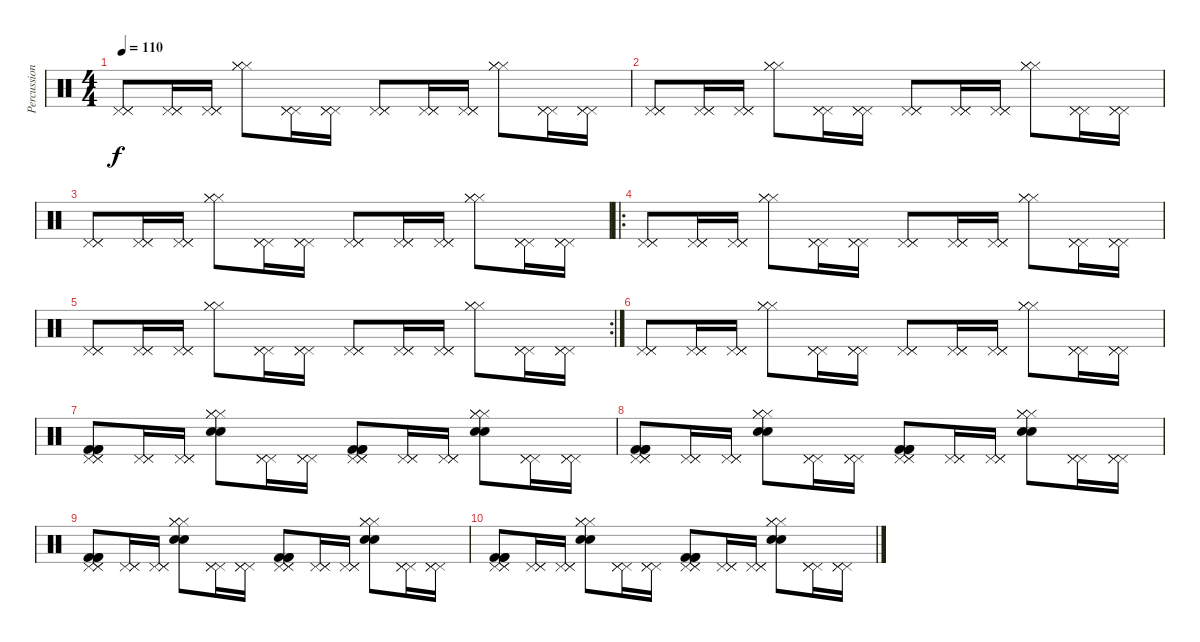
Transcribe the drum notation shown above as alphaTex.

\track ("Percussion" "Percussion") {instrument percussion}
\staff {score}
\articulation defaults
\ts (4 4)
\tempo 110
\clef neutral
\ks c
("Pedal Hi-Hat (hit)" "Pedal Hi-Hat (hit)" "Pedal Hi-Hat (hit)").8{dy f} ("Pedal Hi-Hat (hit)" "Pedal Hi-Hat (hit)" "Pedal Hi-Hat (hit)").16 ("Pedal Hi-Hat (hit)" "Pedal Hi-Hat (hit)" "Pedal Hi-Hat (hit)").16 ("Hi-Hat (closed)" "Hi-Hat (closed)" "Hi-Hat (closed)").8 ("Pedal Hi-Hat (hit)" "Pedal Hi-Hat (hit)" "Pedal Hi-Hat (hit)").16 ("Pedal Hi-Hat (hit)" "Pedal Hi-Hat (hit)" "Pedal Hi-Hat (hit)").16 ("Pedal Hi-Hat (hit)" "Pedal Hi-Hat (hit)" "Pedal Hi-Hat (hit)").8 ("Pedal Hi-Hat (hit)" "Pedal Hi-Hat (hit)" "Pedal Hi-Hat (hit)").16 ("Pedal Hi-Hat (hit)" "Pedal Hi-Hat (hit)" "Pedal Hi-Hat (hit)").16 ("Hi-Hat (closed)" "Hi-Hat (closed)" "Hi-Hat (closed)").8 ("Pedal Hi-Hat (hit)" "Pedal Hi-Hat (hit)" "Pedal Hi-Hat (hit)").16 ("Pedal Hi-Hat (hit)" "Pedal Hi-Hat (hit)" "Pedal Hi-Hat (hit)").16 |
("Pedal Hi-Hat (hit)" "Pedal Hi-Hat (hit)" "Pedal Hi-Hat (hit)").8 ("Pedal Hi-Hat (hit)" "Pedal Hi-Hat (hit)" "Pedal Hi-Hat (hit)").16 ("Pedal Hi-Hat (hit)" "Pedal Hi-Hat (hit)" "Pedal Hi-Hat (hit)").16 ("Hi-Hat (closed)" "Hi-Hat (closed)" "Hi-Hat (closed)").8 ("Pedal Hi-Hat (hit)" "Pedal Hi-Hat (hit)" "Pedal Hi-Hat (hit)").16 ("Pedal Hi-Hat (hit)" "Pedal Hi-Hat (hit)" "Pedal Hi-Hat (hit)").16 ("Pedal Hi-Hat (hit)" "Pedal Hi-Hat (hit)" "Pedal Hi-Hat (hit)").8 ("Pedal Hi-Hat (hit)" "Pedal Hi-Hat (hit)" "Pedal Hi-Hat (hit)").16 ("Pedal Hi-Hat (hit)" "Pedal Hi-Hat (hit)" "Pedal Hi-Hat (hit)").16 ("Hi-Hat (closed)" "Hi-Hat (closed)" "Hi-Hat (closed)").8 ("Pedal Hi-Hat (hit)" "Pedal Hi-Hat (hit)" "Pedal Hi-Hat (hit)").16 ("Pedal Hi-Hat (hit)" "Pedal Hi-Hat (hit)" "Pedal Hi-Hat (hit)").16 |
("Pedal Hi-Hat (hit)" "Pedal Hi-Hat (hit)" "Pedal Hi-Hat (hit)").8 ("Pedal Hi-Hat (hit)" "Pedal Hi-Hat (hit)" "Pedal Hi-Hat (hit)").16 ("Pedal Hi-Hat (hit)" "Pedal Hi-Hat (hit)" "Pedal Hi-Hat (hit)").16 ("Hi-Hat (closed)" "Hi-Hat (closed)" "Hi-Hat (closed)").8 ("Pedal Hi-Hat (hit)" "Pedal Hi-Hat (hit)" "Pedal Hi-Hat (hit)").16 ("Pedal Hi-Hat (hit)" "Pedal Hi-Hat (hit)" "Pedal Hi-Hat (hit)").16 ("Pedal Hi-Hat (hit)" "Pedal Hi-Hat (hit)" "Pedal Hi-Hat (hit)").8 ("Pedal Hi-Hat (hit)" "Pedal Hi-Hat (hit)" "Pedal Hi-Hat (hit)").16 ("Pedal Hi-Hat (hit)" "Pedal Hi-Hat (hit)" "Pedal Hi-Hat (hit)").16 ("Hi-Hat (closed)" "Hi-Hat (closed)" "Hi-Hat (closed)").8 ("Pedal Hi-Hat (hit)" "Pedal Hi-Hat (hit)" "Pedal Hi-Hat (hit)").16 ("Pedal Hi-Hat (hit)" "Pedal Hi-Hat (hit)" "Pedal Hi-Hat (hit)").16 |
\ro
("Pedal Hi-Hat (hit)" "Pedal Hi-Hat (hit)" "Pedal Hi-Hat (hit)").8 ("Pedal Hi-Hat (hit)" "Pedal Hi-Hat (hit)" "Pedal Hi-Hat (hit)").16 ("Pedal Hi-Hat (hit)" "Pedal Hi-Hat (hit)" "Pedal Hi-Hat (hit)").16 ("Hi-Hat (closed)" "Hi-Hat (closed)" "Hi-Hat (closed)").8 ("Pedal Hi-Hat (hit)" "Pedal Hi-Hat (hit)" "Pedal Hi-Hat (hit)").16 ("Pedal Hi-Hat (hit)" "Pedal Hi-Hat (hit)" "Pedal Hi-Hat (hit)").16 ("Pedal Hi-Hat (hit)" "Pedal Hi-Hat (hit)" "Pedal Hi-Hat (hit)").8 ("Pedal Hi-Hat (hit)" "Pedal Hi-Hat (hit)" "Pedal Hi-Hat (hit)").16 ("Pedal Hi-Hat (hit)" "Pedal Hi-Hat (hit)" "Pedal Hi-Hat (hit)").16 ("Hi-Hat (closed)" "Hi-Hat (closed)" "Hi-Hat (closed)").8 ("Pedal Hi-Hat (hit)" "Pedal Hi-Hat (hit)" "Pedal Hi-Hat (hit)").16 ("Pedal Hi-Hat (hit)" "Pedal Hi-Hat (hit)" "Pedal Hi-Hat (hit)").16 |
\rc 2
("Pedal Hi-Hat (hit)" "Pedal Hi-Hat (hit)" "Pedal Hi-Hat (hit)").8 ("Pedal Hi-Hat (hit)" "Pedal Hi-Hat (hit)" "Pedal Hi-Hat (hit)").16 ("Pedal Hi-Hat (hit)" "Pedal Hi-Hat (hit)" "Pedal Hi-Hat (hit)").16 ("Hi-Hat (closed)" "Hi-Hat (closed)" "Hi-Hat (closed)").8 ("Pedal Hi-Hat (hit)" "Pedal Hi-Hat (hit)" "Pedal Hi-Hat (hit)").16 ("Pedal Hi-Hat (hit)" "Pedal Hi-Hat (hit)" "Pedal Hi-Hat (hit)").16 ("Pedal Hi-Hat (hit)" "Pedal Hi-Hat (hit)" "Pedal Hi-Hat (hit)").8 ("Pedal Hi-Hat (hit)" "Pedal Hi-Hat (hit)" "Pedal Hi-Hat (hit)").16 ("Pedal Hi-Hat (hit)" "Pedal Hi-Hat (hit)" "Pedal Hi-Hat (hit)").16 ("Hi-Hat (closed)" "Hi-Hat (closed)" "Hi-Hat (closed)").8 ("Pedal Hi-Hat (hit)" "Pedal Hi-Hat (hit)" "Pedal Hi-Hat (hit)").16 ("Pedal Hi-Hat (hit)" "Pedal Hi-Hat (hit)" "Pedal Hi-Hat (hit)").16 |
("Pedal Hi-Hat (hit)" "Pedal Hi-Hat (hit)" "Pedal Hi-Hat (hit)").8 ("Pedal Hi-Hat (hit)" "Pedal Hi-Hat (hit)" "Pedal Hi-Hat (hit)").16 ("Pedal Hi-Hat (hit)" "Pedal Hi-Hat (hit)" "Pedal Hi-Hat (hit)").16 ("Hi-Hat (closed)" "Hi-Hat (closed)" "Hi-Hat (closed)").8 ("Pedal Hi-Hat (hit)" "Pedal Hi-Hat (hit)" "Pedal Hi-Hat (hit)").16 ("Pedal Hi-Hat (hit)" "Pedal Hi-Hat (hit)" "Pedal Hi-Hat (hit)").16 ("Pedal Hi-Hat (hit)" "Pedal Hi-Hat (hit)" "Pedal Hi-Hat (hit)").8 ("Pedal Hi-Hat (hit)" "Pedal Hi-Hat (hit)" "Pedal Hi-Hat (hit)").16 ("Pedal Hi-Hat (hit)" "Pedal Hi-Hat (hit)" "Pedal Hi-Hat (hit)").16 ("Hi-Hat (closed)" "Hi-Hat (closed)" "Hi-Hat (closed)").8 ("Pedal Hi-Hat (hit)" "Pedal Hi-Hat (hit)" "Pedal Hi-Hat (hit)").16 ("Pedal Hi-Hat (hit)" "Pedal Hi-Hat (hit)" "Pedal Hi-Hat (hit)").16 |
("Pedal Hi-Hat (hit)" "Pedal Hi-Hat (hit)" "Pedal Hi-Hat (hit)" "Kick (hit) 2" "Kick (hit) 2" "Kick (hit) 2").8 ("Pedal Hi-Hat (hit)" "Pedal Hi-Hat (hit)" "Pedal Hi-Hat (hit)").16 ("Pedal Hi-Hat (hit)" "Pedal Hi-Hat (hit)" "Pedal Hi-Hat (hit)").16 ("Hi-Hat (closed)" "Hi-Hat (closed)" "Hi-Hat (closed)" "Electric Snare (hit)" "Electric Snare (hit)").8 ("Pedal Hi-Hat (hit)" "Pedal Hi-Hat (hit)" "Pedal Hi-Hat (hit)").16 ("Pedal Hi-Hat (hit)" "Pedal Hi-Hat (hit)" "Pedal Hi-Hat (hit)").16 ("Pedal Hi-Hat (hit)" "Pedal Hi-Hat (hit)" "Pedal Hi-Hat (hit)" "Kick (hit) 2" "Kick (hit) 2" "Kick (hit) 2").8 ("Pedal Hi-Hat (hit)" "Pedal Hi-Hat (hit)" "Pedal Hi-Hat (hit)").16 ("Pedal Hi-Hat (hit)" "Pedal Hi-Hat (hit)" "Pedal Hi-Hat (hit)").16 ("Hi-Hat (closed)" "Hi-Hat (closed)" "Hi-Hat (closed)" "Electric Snare (hit)" "Electric Snare (hit)").8 ("Pedal Hi-Hat (hit)" "Pedal Hi-Hat (hit)" "Pedal Hi-Hat (hit)").16 ("Pedal Hi-Hat (hit)" "Pedal Hi-Hat (hit)" "Pedal Hi-Hat (hit)").16 |
("Pedal Hi-Hat (hit)" "Pedal Hi-Hat (hit)" "Pedal Hi-Hat (hit)" "Kick (hit) 2" "Kick (hit) 2" "Kick (hit) 2").8 ("Pedal Hi-Hat (hit)" "Pedal Hi-Hat (hit)" "Pedal Hi-Hat (hit)").16 ("Pedal Hi-Hat (hit)" "Pedal Hi-Hat (hit)" "Pedal Hi-Hat (hit)").16 ("Hi-Hat (closed)" "Hi-Hat (closed)" "Hi-Hat (closed)" "Electric Snare (hit)" "Electric Snare (hit)").8 ("Pedal Hi-Hat (hit)" "Pedal Hi-Hat (hit)" "Pedal Hi-Hat (hit)").16 ("Pedal Hi-Hat (hit)" "Pedal Hi-Hat (hit)" "Pedal Hi-Hat (hit)").16 ("Pedal Hi-Hat (hit)" "Pedal Hi-Hat (hit)" "Pedal Hi-Hat (hit)" "Kick (hit) 2" "Kick (hit) 2" "Kick (hit) 2").8 ("Pedal Hi-Hat (hit)" "Pedal Hi-Hat (hit)" "Pedal Hi-Hat (hit)").16 ("Pedal Hi-Hat (hit)" "Pedal Hi-Hat (hit)" "Pedal Hi-Hat (hit)").16 ("Hi-Hat (closed)" "Hi-Hat (closed)" "Hi-Hat (closed)" "Electric Snare (hit)" "Electric Snare (hit)").8 ("Pedal Hi-Hat (hit)" "Pedal Hi-Hat (hit)" "Pedal Hi-Hat (hit)").16 ("Pedal Hi-Hat (hit)" "Pedal Hi-Hat (hit)" "Pedal Hi-Hat (hit)").16 |
("Pedal Hi-Hat (hit)" "Pedal Hi-Hat (hit)" "Pedal Hi-Hat (hit)" "Kick (hit) 2" "Kick (hit) 2" "Kick (hit) 2").8 ("Pedal Hi-Hat (hit)" "Pedal Hi-Hat (hit)" "Pedal Hi-Hat (hit)").16 ("Pedal Hi-Hat (hit)" "Pedal Hi-Hat (hit)" "Pedal Hi-Hat (hit)").16 ("Hi-Hat (closed)" "Hi-Hat (closed)" "Hi-Hat (closed)" "Electric Snare (hit)" "Electric Snare (hit)").8 ("Pedal Hi-Hat (hit)" "Pedal Hi-Hat (hit)" "Pedal Hi-Hat (hit)").16 ("Pedal Hi-Hat (hit)" "Pedal Hi-Hat (hit)" "Pedal Hi-Hat (hit)").16 ("Pedal Hi-Hat (hit)" "Pedal Hi-Hat (hit)" "Pedal Hi-Hat (hit)" "Kick (hit) 2" "Kick (hit) 2" "Kick (hit) 2").8 ("Pedal Hi-Hat (hit)" "Pedal Hi-Hat (hit)" "Pedal Hi-Hat (hit)").16 ("Pedal Hi-Hat (hit)" "Pedal Hi-Hat (hit)" "Pedal Hi-Hat (hit)").16 ("Hi-Hat (closed)" "Hi-Hat (closed)" "Hi-Hat (closed)" "Electric Snare (hit)" "Electric Snare (hit)").8 ("Pedal Hi-Hat (hit)" "Pedal Hi-Hat (hit)" "Pedal Hi-Hat (hit)").16 ("Pedal Hi-Hat (hit)" "Pedal Hi-Hat (hit)" "Pedal Hi-Hat (hit)").16 |
("Pedal Hi-Hat (hit)" "Pedal Hi-Hat (hit)" "Pedal Hi-Hat (hit)" "Kick (hit) 2" "Kick (hit) 2" "Kick (hit) 2").8 ("Pedal Hi-Hat (hit)" "Pedal Hi-Hat (hit)" "Pedal Hi-Hat (hit)").16 ("Pedal Hi-Hat (hit)" "Pedal Hi-Hat (hit)" "Pedal Hi-Hat (hit)").16 ("Hi-Hat (closed)" "Hi-Hat (closed)" "Hi-Hat (closed)" "Electric Snare (hit)" "Electric Snare (hit)").8 ("Pedal Hi-Hat (hit)" "Pedal Hi-Hat (hit)" "Pedal Hi-Hat (hit)").16 ("Pedal Hi-Hat (hit)" "Pedal Hi-Hat (hit)" "Pedal Hi-Hat (hit)").16 ("Pedal Hi-Hat (hit)" "Pedal Hi-Hat (hit)" "Pedal Hi-Hat (hit)" "Kick (hit) 2" "Kick (hit) 2" "Kick (hit) 2").8 ("Pedal Hi-Hat (hit)" "Pedal Hi-Hat (hit)" "Pedal Hi-Hat (hit)").16 ("Pedal Hi-Hat (hit)" "Pedal Hi-Hat (hit)" "Pedal Hi-Hat (hit)").16 ("Hi-Hat (closed)" "Hi-Hat (closed)" "Hi-Hat (closed)" "Electric Snare (hit)" "Electric Snare (hit)").8 ("Pedal Hi-Hat (hit)" "Pedal Hi-Hat (hit)" "Pedal Hi-Hat (hit)").16 ("Pedal Hi-Hat (hit)" "Pedal Hi-Hat (hit)" "Pedal Hi-Hat (hit)").16
